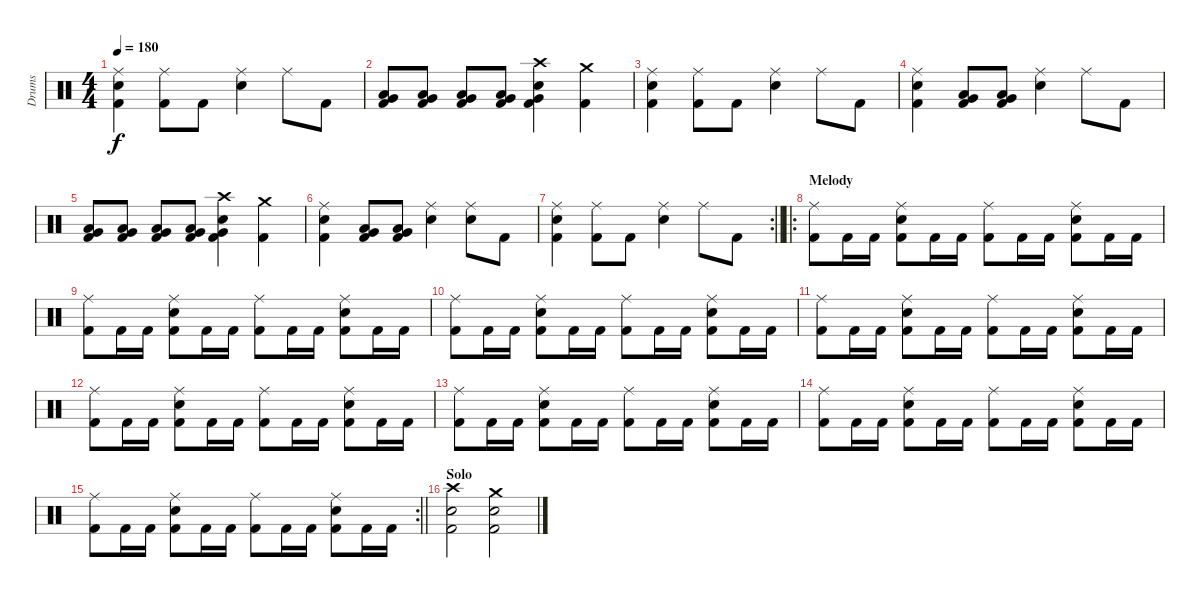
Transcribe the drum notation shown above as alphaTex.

\track ("Drums" "Drums") {instrument percussion}
\staff {score}
\articulation defaults
\ts (4 4)
\tempo 180
\clef neutral
\ks c
("Ride (middle)" "Electric Snare (hit)" "Kick (hit) 2").4{dy f} ("Ride (middle)" "Kick (hit) 2").8 "Kick (hit) 2".8 ("Ride (middle)" "Electric Snare (hit)").4 "Ride (middle)".8 "Kick (hit) 2".8 |
("Low Floor Tom (hit)" "Very Low Tom (hit)" "Kick (hit) 2").8 ("Low Floor Tom (hit)" "Very Low Tom (hit)" "Kick (hit) 2").8 ("Low Floor Tom (hit)" "Very Low Tom (hit)" "Kick (hit) 2").8 ("Low Floor Tom (hit)" "Very Low Tom (hit)" "Kick (hit) 2").8 ("Crash high (hit)" "Electric Snare (hit)" "Very Low Tom (hit)" "Kick (hit) 2").4 ("Crash medium (hit)" "Kick (hit) 2").4 |
("Ride (middle)" "Electric Snare (hit)" "Kick (hit) 2").4 ("Ride (middle)" "Kick (hit) 2").8 "Kick (hit) 2".8 ("Ride (middle)" "Electric Snare (hit)").4 "Ride (middle)".8 "Kick (hit) 2".8 |
("Ride (middle)" "Electric Snare (hit)" "Kick (hit) 2").4 ("Very Low Tom (hit)" "Low Floor Tom (hit)" "Kick (hit) 2").8 ("Very Low Tom (hit)" "Low Floor Tom (hit)" "Kick (hit) 2").8 ("Ride (middle)" "Electric Snare (hit)").4 "Ride (middle)".8 "Kick (hit) 2".8 |
("Low Floor Tom (hit)" "Very Low Tom (hit)" "Kick (hit) 2").8 ("Low Floor Tom (hit)" "Very Low Tom (hit)" "Kick (hit) 2").8 ("Low Floor Tom (hit)" "Very Low Tom (hit)" "Kick (hit) 2").8 ("Low Floor Tom (hit)" "Very Low Tom (hit)" "Kick (hit) 2").8 ("Crash high (hit)" "Electric Snare (hit)" "Very Low Tom (hit)" "Kick (hit) 2").4 ("Crash medium (hit)" "Kick (hit) 2").4 |
("Ride (middle)" "Electric Snare (hit)" "Kick (hit) 2").4 ("Very Low Tom (hit)" "Low Floor Tom (hit)" "Kick (hit) 2").8 ("Very Low Tom (hit)" "Low Floor Tom (hit)" "Kick (hit) 2").8 ("Ride (middle)" "Electric Snare (hit)").4 ("Ride (middle)" "Electric Snare (hit)").8 "Kick (hit) 2".8 |
\rc 2
\barLineRight lightlight
("Ride (middle)" "Electric Snare (hit)" "Kick (hit) 2").4 ("Ride (middle)" "Kick (hit) 2").8 "Kick (hit) 2".8 ("Ride (middle)" "Electric Snare (hit)").4 "Ride (middle)".8 "Kick (hit) 2".8 |
\ro
\section ("" "Melody")
("Ride (middle)" "Kick (hit) 2").8 "Kick (hit) 2".16 "Kick (hit) 2".16 ("Ride (middle)" "Electric Snare (hit)" "Kick (hit) 2").8 "Kick (hit) 2".16 "Kick (hit) 2".16 ("Ride (middle)" "Kick (hit) 2").8 "Kick (hit) 2".16 "Kick (hit) 2".16 ("Ride (middle)" "Electric Snare (hit)" "Kick (hit) 2").8 "Kick (hit) 2".16 "Kick (hit) 2".16 |
("Ride (middle)" "Kick (hit) 2").8 "Kick (hit) 2".16 "Kick (hit) 2".16 ("Ride (middle)" "Electric Snare (hit)" "Kick (hit) 2").8 "Kick (hit) 2".16 "Kick (hit) 2".16 ("Ride (middle)" "Kick (hit) 2").8 "Kick (hit) 2".16 "Kick (hit) 2".16 ("Ride (middle)" "Electric Snare (hit)" "Kick (hit) 2").8 "Kick (hit) 2".16 "Kick (hit) 2".16 |
("Ride (middle)" "Kick (hit) 2").8 "Kick (hit) 2".16 "Kick (hit) 2".16 ("Ride (middle)" "Electric Snare (hit)" "Kick (hit) 2").8 "Kick (hit) 2".16 "Kick (hit) 2".16 ("Ride (middle)" "Kick (hit) 2").8 "Kick (hit) 2".16 "Kick (hit) 2".16 ("Ride (middle)" "Electric Snare (hit)" "Kick (hit) 2").8 "Kick (hit) 2".16 "Kick (hit) 2".16 |
("Ride (middle)" "Kick (hit) 2").8 "Kick (hit) 2".16 "Kick (hit) 2".16 ("Ride (middle)" "Electric Snare (hit)" "Kick (hit) 2").8 "Kick (hit) 2".16 "Kick (hit) 2".16 ("Ride (middle)" "Kick (hit) 2").8 "Kick (hit) 2".16 "Kick (hit) 2".16 ("Ride (middle)" "Electric Snare (hit)" "Kick (hit) 2").8 "Kick (hit) 2".16 "Kick (hit) 2".16 |
("Ride (middle)" "Kick (hit) 2").8 "Kick (hit) 2".16 "Kick (hit) 2".16 ("Ride (middle)" "Electric Snare (hit)" "Kick (hit) 2").8 "Kick (hit) 2".16 "Kick (hit) 2".16 ("Ride (middle)" "Kick (hit) 2").8 "Kick (hit) 2".16 "Kick (hit) 2".16 ("Ride (middle)" "Electric Snare (hit)" "Kick (hit) 2").8 "Kick (hit) 2".16 "Kick (hit) 2".16 |
("Ride (middle)" "Kick (hit) 2").8 "Kick (hit) 2".16 "Kick (hit) 2".16 ("Ride (middle)" "Electric Snare (hit)" "Kick (hit) 2").8 "Kick (hit) 2".16 "Kick (hit) 2".16 ("Ride (middle)" "Kick (hit) 2").8 "Kick (hit) 2".16 "Kick (hit) 2".16 ("Ride (middle)" "Electric Snare (hit)" "Kick (hit) 2").8 "Kick (hit) 2".16 "Kick (hit) 2".16 |
("Ride (middle)" "Kick (hit) 2").8 "Kick (hit) 2".16 "Kick (hit) 2".16 ("Ride (middle)" "Electric Snare (hit)" "Kick (hit) 2").8 "Kick (hit) 2".16 "Kick (hit) 2".16 ("Ride (middle)" "Kick (hit) 2").8 "Kick (hit) 2".16 "Kick (hit) 2".16 ("Ride (middle)" "Electric Snare (hit)" "Kick (hit) 2").8 "Kick (hit) 2".16 "Kick (hit) 2".16 |
\rc 2
\barLineRight lightlight
("Ride (middle)" "Kick (hit) 2").8 "Kick (hit) 2".16 "Kick (hit) 2".16 ("Ride (middle)" "Electric Snare (hit)" "Kick (hit) 2").8 "Kick (hit) 2".16 "Kick (hit) 2".16 ("Ride (middle)" "Kick (hit) 2").8 "Kick (hit) 2".16 "Kick (hit) 2".16 ("Ride (middle)" "Electric Snare (hit)" "Kick (hit) 2").8 "Kick (hit) 2".16 "Kick (hit) 2".16 |
\section ("" "Solo")
("Crash high (hit)" "Electric Snare (hit)" "Kick (hit) 2").2 ("Crash medium (hit)" "Electric Snare (hit)" "Kick (hit) 2").2
